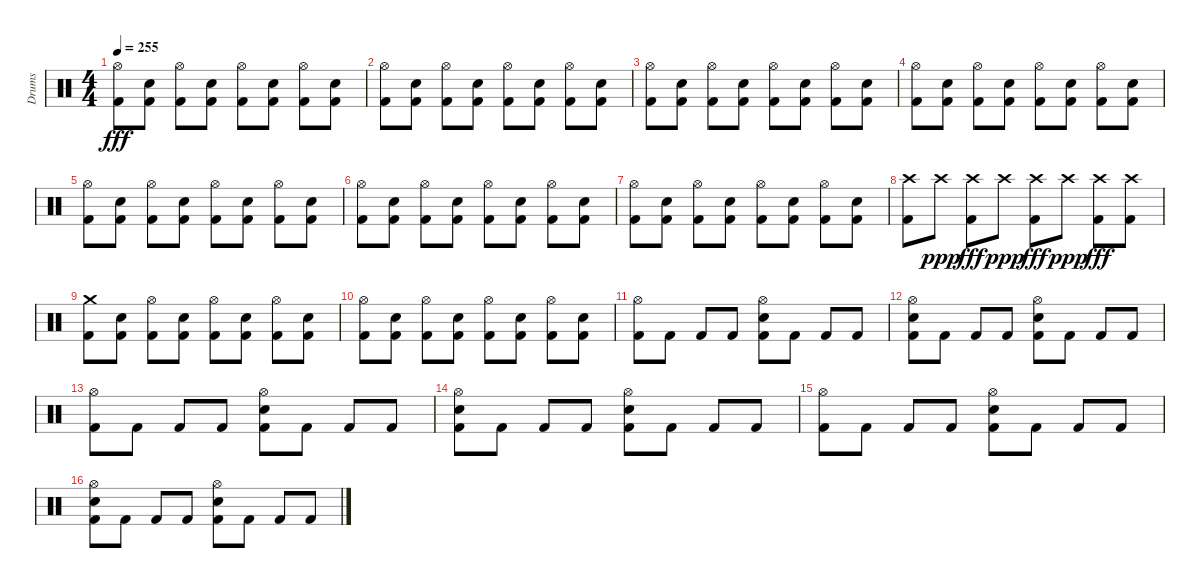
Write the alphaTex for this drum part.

\track ("Drums" "Drums") {instrument percussion}
\staff {score}
\articulation defaults
\ts (4 4)
\tempo 255
\clef neutral
\ks c
("Hi-Hat (open)" "Kick (hit) 2").8{dy fff} ("Electric Snare (hit)" "Kick (hit) 2").8 ("Hi-Hat (open)" "Kick (hit) 2").8 ("Electric Snare (hit)" "Kick (hit) 2").8 ("Hi-Hat (open)" "Kick (hit) 2").8 ("Electric Snare (hit)" "Kick (hit) 2").8 ("Hi-Hat (open)" "Kick (hit) 2").8 ("Electric Snare (hit)" "Kick (hit) 2").8 |
("Hi-Hat (open)" "Kick (hit) 2").8 ("Electric Snare (hit)" "Kick (hit) 2").8 ("Hi-Hat (open)" "Kick (hit) 2").8 ("Electric Snare (hit)" "Kick (hit) 2").8 ("Hi-Hat (open)" "Kick (hit) 2").8 ("Electric Snare (hit)" "Kick (hit) 2").8 ("Hi-Hat (open)" "Kick (hit) 2").8 ("Electric Snare (hit)" "Kick (hit) 2").8 |
("Hi-Hat (open)" "Kick (hit) 2").8 ("Electric Snare (hit)" "Kick (hit) 2").8 ("Hi-Hat (open)" "Kick (hit) 2").8 ("Electric Snare (hit)" "Kick (hit) 2").8 ("Hi-Hat (open)" "Kick (hit) 2").8 ("Electric Snare (hit)" "Kick (hit) 2").8 ("Hi-Hat (open)" "Kick (hit) 2").8 ("Electric Snare (hit)" "Kick (hit) 2").8 |
("Hi-Hat (open)" "Kick (hit) 2").8 ("Electric Snare (hit)" "Kick (hit) 2").8 ("Hi-Hat (open)" "Kick (hit) 2").8 ("Electric Snare (hit)" "Kick (hit) 2").8 ("Hi-Hat (open)" "Kick (hit) 2").8 ("Electric Snare (hit)" "Kick (hit) 2").8 ("Hi-Hat (open)" "Kick (hit) 2").8 ("Electric Snare (hit)" "Kick (hit) 2").8 |
("Hi-Hat (open)" "Kick (hit) 2").8 ("Electric Snare (hit)" "Kick (hit) 2").8 ("Hi-Hat (open)" "Kick (hit) 2").8 ("Electric Snare (hit)" "Kick (hit) 2").8 ("Hi-Hat (open)" "Kick (hit) 2").8 ("Electric Snare (hit)" "Kick (hit) 2").8 ("Hi-Hat (open)" "Kick (hit) 2").8 ("Electric Snare (hit)" "Kick (hit) 2").8 |
("Hi-Hat (open)" "Kick (hit) 2").8 ("Electric Snare (hit)" "Kick (hit) 2").8 ("Hi-Hat (open)" "Kick (hit) 2").8 ("Electric Snare (hit)" "Kick (hit) 2").8 ("Hi-Hat (open)" "Kick (hit) 2").8 ("Electric Snare (hit)" "Kick (hit) 2").8 ("Hi-Hat (open)" "Kick (hit) 2").8 ("Electric Snare (hit)" "Kick (hit) 2").8 |
("Hi-Hat (open)" "Kick (hit) 2").8 ("Electric Snare (hit)" "Kick (hit) 2").8 ("Hi-Hat (open)" "Kick (hit) 2").8 ("Electric Snare (hit)" "Kick (hit) 2").8 ("Hi-Hat (open)" "Kick (hit) 2").8 ("Electric Snare (hit)" "Kick (hit) 2").8 ("Hi-Hat (open)" "Kick (hit) 2").8 ("Electric Snare (hit)" "Kick (hit) 2").8 |
("Crash high (hit)" "Kick (hit) 2").8 "Crash high (hit)".8{dy ppp} ("Crash high (hit)" "Kick (hit) 2").8{dy fff} "Crash high (hit)".8{dy ppp} ("Crash high (hit)" "Kick (hit) 2").8{dy fff} "Crash high (hit)".8{dy ppp} ("Crash high (hit)" "Kick (hit) 2").8{dy fff} ("Crash high (hit)" "Kick (hit) 2").8 |
("Crash medium (hit)" "Kick (hit) 2").8 ("Electric Snare (hit)" "Kick (hit) 2").8 ("Hi-Hat (open)" "Kick (hit) 2").8 ("Electric Snare (hit)" "Kick (hit) 2").8 ("Hi-Hat (open)" "Kick (hit) 2").8 ("Electric Snare (hit)" "Kick (hit) 2").8 ("Hi-Hat (open)" "Kick (hit) 2").8 ("Electric Snare (hit)" "Kick (hit) 2").8 |
("Hi-Hat (open)" "Kick (hit) 2").8 ("Electric Snare (hit)" "Kick (hit) 2").8 ("Hi-Hat (open)" "Kick (hit) 2").8 ("Electric Snare (hit)" "Kick (hit) 2").8 ("Hi-Hat (open)" "Kick (hit) 2").8 ("Electric Snare (hit)" "Kick (hit) 2").8 ("Hi-Hat (open)" "Kick (hit) 2").8 ("Electric Snare (hit)" "Kick (hit) 2").8 |
("Hi-Hat (open)" "Kick (hit) 2").8 "Kick (hit) 2".8 "Kick (hit) 2".8 "Kick (hit) 2".8 ("Hi-Hat (open)" "Electric Snare (hit)" "Kick (hit) 2").8 "Kick (hit) 2".8 "Kick (hit) 2".8 "Kick (hit) 2".8 |
("Hi-Hat (open)" "Electric Snare (hit)" "Kick (hit) 2").8 "Kick (hit) 2".8 "Kick (hit) 2".8 "Kick (hit) 2".8 ("Hi-Hat (open)" "Electric Snare (hit)" "Kick (hit) 2").8 "Kick (hit) 2".8 "Kick (hit) 2".8 "Kick (hit) 2".8 |
("Hi-Hat (open)" "Kick (hit) 2").8 "Kick (hit) 2".8 "Kick (hit) 2".8 "Kick (hit) 2".8 ("Hi-Hat (open)" "Electric Snare (hit)" "Kick (hit) 2").8 "Kick (hit) 2".8 "Kick (hit) 2".8 "Kick (hit) 2".8 |
("Hi-Hat (open)" "Electric Snare (hit)" "Kick (hit) 2").8 "Kick (hit) 2".8 "Kick (hit) 2".8 "Kick (hit) 2".8 ("Hi-Hat (open)" "Electric Snare (hit)" "Kick (hit) 2").8 "Kick (hit) 2".8 "Kick (hit) 2".8 "Kick (hit) 2".8 |
("Hi-Hat (open)" "Kick (hit) 2").8 "Kick (hit) 2".8 "Kick (hit) 2".8 "Kick (hit) 2".8 ("Hi-Hat (open)" "Electric Snare (hit)" "Kick (hit) 2").8 "Kick (hit) 2".8 "Kick (hit) 2".8 "Kick (hit) 2".8 |
("Hi-Hat (open)" "Electric Snare (hit)" "Kick (hit) 2").8 "Kick (hit) 2".8 "Kick (hit) 2".8 "Kick (hit) 2".8 ("Hi-Hat (open)" "Electric Snare (hit)" "Kick (hit) 2").8 "Kick (hit) 2".8 "Kick (hit) 2".8 "Kick (hit) 2".8
